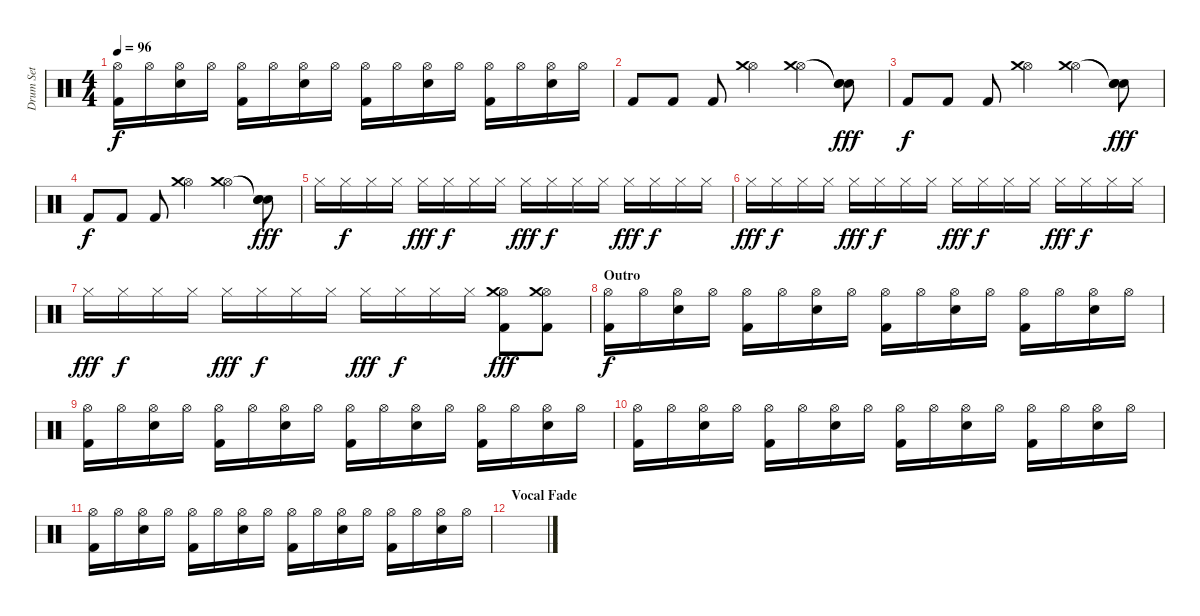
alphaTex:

\track ("Drum Set" "Drum Set") {instrument percussion}
\staff {score}
\articulation defaults
\ts (4 4)
\tempo 96
\clef neutral
\ks c
("Hi-Hat (open)" "Kick (hit) 2").16{dy f} "Hi-Hat (open)".16 ("Hi-Hat (open)" "Snare (hit) 2").16 "Hi-Hat (open)".16 ("Hi-Hat (open)" "Kick (hit) 2").16 "Hi-Hat (open)".16 ("Hi-Hat (open)" "Snare (hit) 2").16 "Hi-Hat (open)".16 ("Hi-Hat (open)" "Kick (hit) 2").16 "Hi-Hat (open)".16 ("Hi-Hat (open)" "Snare (hit) 2").16 "Hi-Hat (open)".16 ("Hi-Hat (open)" "Kick (hit) 2").16 "Hi-Hat (open)".16 ("Hi-Hat (open)" "Snare (hit) 2").16 "Hi-Hat (open)".16 |
"Kick (hit) 2".8 "Kick (hit) 2".8 "Kick (hit) 2".8 ("Hi-Hat (open)" "Crash medium (hit)").4 ("Hi-Hat (open)" "Crash medium (hit)").4 ("Snare (hit)"{t} "Snare (hit)"{t} "Snare (hit) 2").8{dy fff} |
"Kick (hit) 2".8{dy f} "Kick (hit) 2".8 "Kick (hit) 2".8 ("Hi-Hat (open)" "Crash medium (hit)").4 ("Hi-Hat (open)" "Crash medium (hit)").4 ("Snare (hit)"{t} "Snare (hit)"{t} "Snare (hit) 2").8{dy fff} |
"Kick (hit) 2".8{dy f} "Kick (hit) 2".8 "Kick (hit) 2".8 ("Hi-Hat (open)" "Crash medium (hit)").4 ("Hi-Hat (open)" "Crash medium (hit)").4 ("Snare (hit)"{t} "Snare (hit)"{t} "Snare (hit) 2").8{dy fff} |
"Hi-Hat (closed)".16 "Hi-Hat (closed)".16{dy f} "Hi-Hat (closed)".16 "Hi-Hat (closed)".16 "Hi-Hat (closed)".16{dy fff} "Hi-Hat (closed)".16{dy f} "Hi-Hat (closed)".16 "Hi-Hat (closed)".16 "Hi-Hat (closed)".16{dy fff} "Hi-Hat (closed)".16{dy f} "Hi-Hat (closed)".16 "Hi-Hat (closed)".16 "Hi-Hat (closed)".16{dy fff} "Hi-Hat (closed)".16{dy f} "Hi-Hat (closed)".16 "Hi-Hat (closed)".16 |
"Hi-Hat (closed)".16{dy fff} "Hi-Hat (closed)".16{dy f} "Hi-Hat (closed)".16 "Hi-Hat (closed)".16 "Hi-Hat (closed)".16{dy fff} "Hi-Hat (closed)".16{dy f} "Hi-Hat (closed)".16 "Hi-Hat (closed)".16 "Hi-Hat (closed)".16{dy fff} "Hi-Hat (closed)".16{dy f} "Hi-Hat (closed)".16 "Hi-Hat (closed)".16 "Hi-Hat (closed)".16{dy fff} "Hi-Hat (closed)".16{dy f} "Hi-Hat (closed)".16 "Hi-Hat (closed)".16 |
"Hi-Hat (closed)".16{dy fff} "Hi-Hat (closed)".16{dy f} "Hi-Hat (closed)".16 "Hi-Hat (closed)".16 "Hi-Hat (closed)".16{dy fff} "Hi-Hat (closed)".16{dy f} "Hi-Hat (closed)".16 "Hi-Hat (closed)".16 "Hi-Hat (closed)".16{dy fff} "Hi-Hat (closed)".16{dy f} "Hi-Hat (closed)".16 "Hi-Hat (closed)".16 ("Hi-Hat (open)" "Crash medium (hit)" "Kick (hit) 2").8{dy fff} ("Hi-Hat (open)" "Crash medium (hit)" "Kick (hit) 2").8 |
\section ("" "Outro")
("Hi-Hat (open)" "Kick (hit) 2").16{dy f} "Hi-Hat (open)".16 ("Hi-Hat (open)" "Snare (hit) 2").16 "Hi-Hat (open)".16 ("Hi-Hat (open)" "Kick (hit) 2").16 "Hi-Hat (open)".16 ("Hi-Hat (open)" "Snare (hit) 2").16 "Hi-Hat (open)".16 ("Hi-Hat (open)" "Kick (hit) 2").16 "Hi-Hat (open)".16 ("Hi-Hat (open)" "Snare (hit) 2").16 "Hi-Hat (open)".16 ("Hi-Hat (open)" "Kick (hit) 2").16 "Hi-Hat (open)".16 ("Hi-Hat (open)" "Snare (hit) 2").16 "Hi-Hat (open)".16 |
("Hi-Hat (open)" "Kick (hit) 2").16 "Hi-Hat (open)".16 ("Hi-Hat (open)" "Snare (hit) 2").16 "Hi-Hat (open)".16 ("Hi-Hat (open)" "Kick (hit) 2").16 "Hi-Hat (open)".16 ("Hi-Hat (open)" "Snare (hit) 2").16 "Hi-Hat (open)".16 ("Hi-Hat (open)" "Kick (hit) 2").16 "Hi-Hat (open)".16 ("Hi-Hat (open)" "Snare (hit) 2").16 "Hi-Hat (open)".16 ("Hi-Hat (open)" "Kick (hit) 2").16 "Hi-Hat (open)".16 ("Hi-Hat (open)" "Snare (hit) 2").16 "Hi-Hat (open)".16 |
("Hi-Hat (open)" "Kick (hit) 2").16 "Hi-Hat (open)".16 ("Hi-Hat (open)" "Snare (hit) 2").16 "Hi-Hat (open)".16 ("Hi-Hat (open)" "Kick (hit) 2").16 "Hi-Hat (open)".16 ("Hi-Hat (open)" "Snare (hit) 2").16 "Hi-Hat (open)".16 ("Hi-Hat (open)" "Kick (hit) 2").16 "Hi-Hat (open)".16 ("Hi-Hat (open)" "Snare (hit) 2").16 "Hi-Hat (open)".16 ("Hi-Hat (open)" "Kick (hit) 2").16 "Hi-Hat (open)".16 ("Hi-Hat (open)" "Snare (hit) 2").16 "Hi-Hat (open)".16 |
("Hi-Hat (open)" "Kick (hit) 2").16 "Hi-Hat (open)".16 ("Hi-Hat (open)" "Snare (hit) 2").16 "Hi-Hat (open)".16 ("Hi-Hat (open)" "Kick (hit) 2").16 "Hi-Hat (open)".16 ("Hi-Hat (open)" "Snare (hit) 2").16 "Hi-Hat (open)".16 ("Hi-Hat (open)" "Kick (hit) 2").16 "Hi-Hat (open)".16 ("Hi-Hat (open)" "Snare (hit) 2").16 "Hi-Hat (open)".16 ("Hi-Hat (open)" "Kick (hit) 2").16 "Hi-Hat (open)".16 ("Hi-Hat (open)" "Snare (hit) 2").16 "Hi-Hat (open)".16 |
\section ("" "Vocal Fade")
